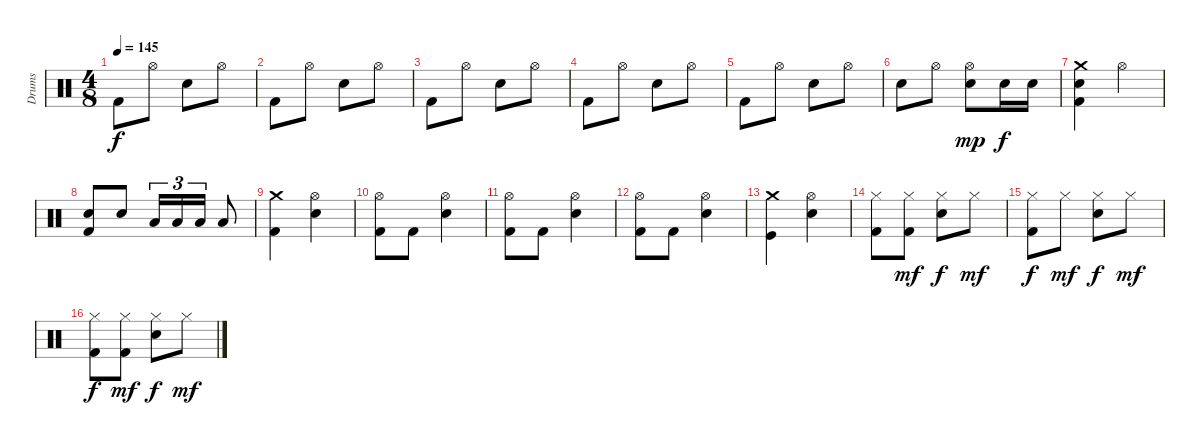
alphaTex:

\track ("Drums" "Drums") {instrument percussion}
\staff {score}
\articulation defaults
\ts (4 8)
\tempo 145
\clef neutral
\ks c "Kick (hit) 2".8{dy f} "Hi-Hat (open)".8 "Snare (hit) 2".8 "Hi-Hat (open)".8
|
"Kick (hit) 2".8 "Hi-Hat (open)".8 "Snare (hit) 2".8 "Hi-Hat (open)".8 |
"Kick (hit) 2".8 "Hi-Hat (open)".8 "Snare (hit) 2".8 "Hi-Hat (open)".8 |
"Kick (hit) 2".8 "Hi-Hat (open)".8 "Snare (hit) 2".8 "Hi-Hat (open)".8 |
"Kick (hit) 2".8 "Hi-Hat (open)".8 "Snare (hit) 2".8 "Hi-Hat (open)".8 |
"Snare (hit) 2".8 "Hi-Hat (open)".8 ("Hi-Hat (open)" "Snare (hit) 2").8{dy mp} "Snare (hit) 2".16{dy f} "Snare (hit) 2".16 |
("Crash medium (hit)" "Snare (hit) 2" "Kick (hit) 2").4 "Hi-Hat (open)".4 |
("Snare (hit) 2" "Kick (hit) 2").8 "Snare (hit) 2".8 "Low Floor Tom (hit)".16{tu (3 2)} "Low Tom (hit)".16{tu (3 2)} "Low Tom (hit)".16{tu (3 2)} "Low Floor Tom (hit)".8 |
("Crash medium (hit)" "Kick (hit) 2").4 ("Hi-Hat (open)" "Snare (hit) 2").4 |
("Hi-Hat (open)" "Kick (hit) 2").8 "Kick (hit) 2".8 ("Hi-Hat (open)" "Snare (hit) 2").4 |
("Hi-Hat (open)" "Kick (hit) 2").8 "Kick (hit) 2".8 ("Hi-Hat (open)" "Snare (hit) 2").4 |
("Hi-Hat (open)" "Kick (hit) 2").8 "Kick (hit) 2".8 ("Hi-Hat (open)" "Snare (hit) 2").4 |
("Crash medium (hit)" "Kick (hit)").4 ("Hi-Hat (open)" "Snare (hit) 2").4 |
("Hi-Hat (closed)" "Kick (hit) 2").8 ("Hi-Hat (closed)" "Kick (hit) 2").8{dy mf} ("Hi-Hat (closed)" "Snare (hit) 2").8{dy f} "Hi-Hat (closed)".8{dy mf} |
("Hi-Hat (closed)" "Kick (hit) 2").8{dy f} "Hi-Hat (closed)".8{dy mf} ("Hi-Hat (closed)" "Snare (hit) 2").8{dy f} "Hi-Hat (closed)".8{dy mf} |
("Hi-Hat (closed)" "Kick (hit) 2").8{dy f} ("Hi-Hat (closed)" "Kick (hit) 2").8{dy mf} ("Hi-Hat (closed)" "Snare (hit) 2").8{dy f} "Hi-Hat (closed)".8{dy mf}
